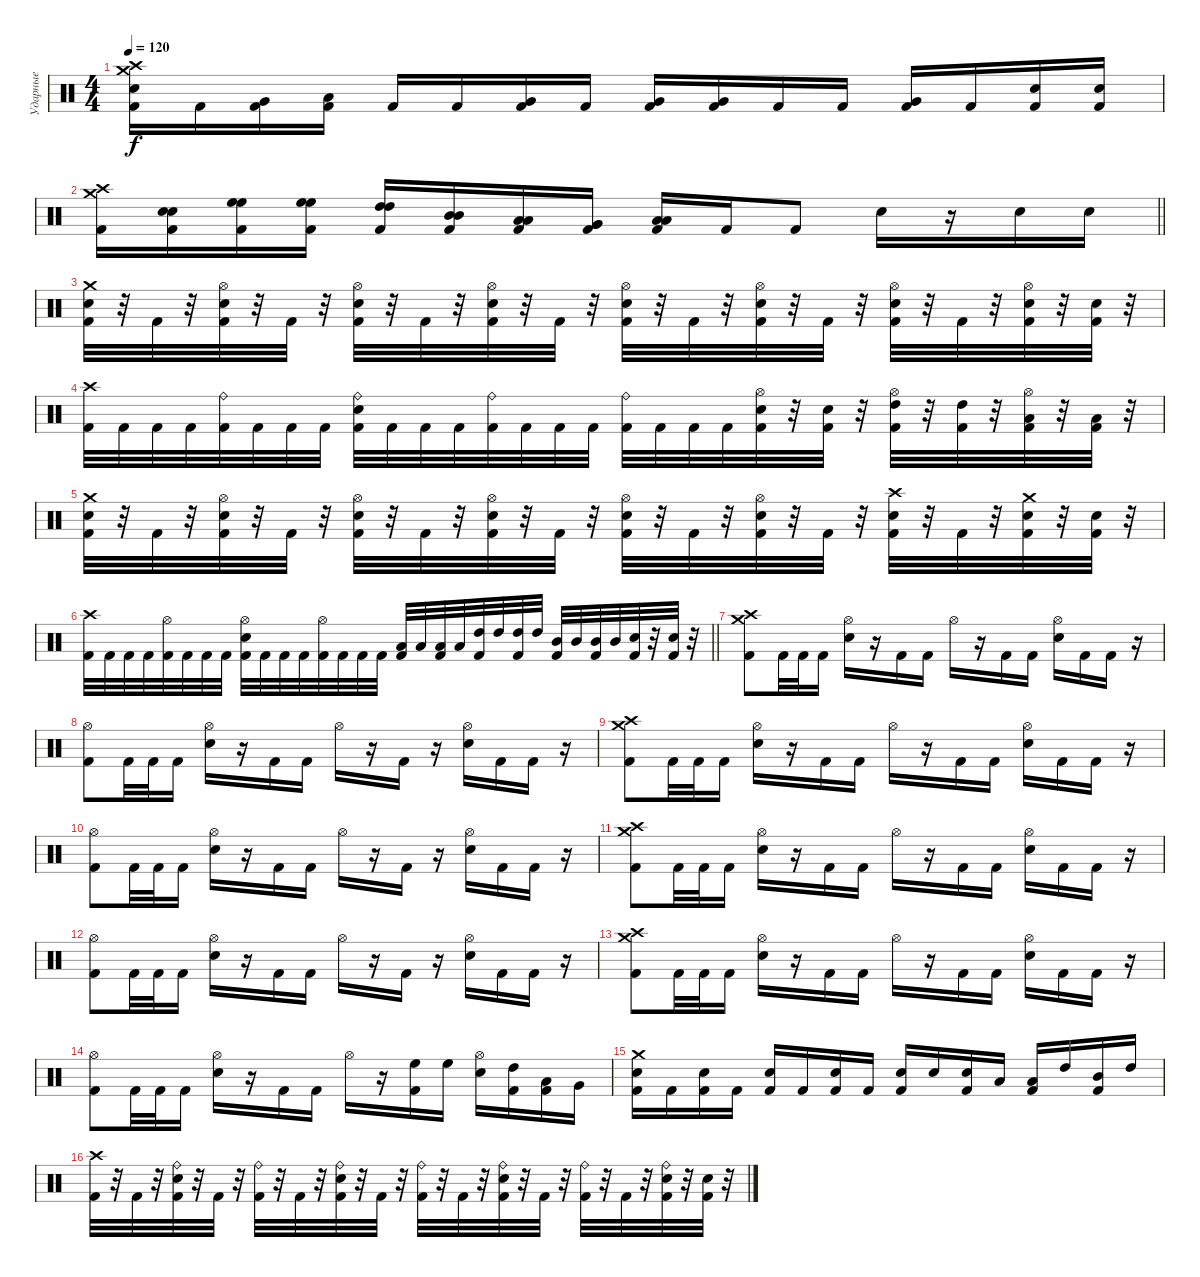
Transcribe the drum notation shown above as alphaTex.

\track ("Ударные" "Ударные") {instrument percussion}
\staff {score}
\articulation defaults
\ts (4 4)
\tempo 120
\clef neutral
\ks c
("Crash medium (hit)" "Crash high (hit)" "Snare (hit) 2" "Kick (hit) 2").16{dy f} "Kick (hit) 2".16 ("Very Low Tom (hit)" "Kick (hit) 2").16 ("Low Tom (hit)" "Kick (hit) 2").16 "Kick (hit) 2".16 "Kick (hit) 2".16 ("Very Low Tom (hit)" "Kick (hit) 2").16 "Kick (hit) 2".16 ("Very Low Tom (hit)" "Kick (hit) 2").16 ("Very Low Tom (hit)" "Kick (hit) 2").16 "Kick (hit) 2".16 "Kick (hit) 2".16 ("Very Low Tom (hit)" "Kick (hit) 2").16 "Kick (hit) 2".16 ("Snare (hit) 2" "Kick (hit) 2").16 ("Snare (hit) 2" "Kick (hit) 2").16 |
\barLineRight lightlight
("Crash medium (hit)" "Crash high (hit)" "Kick (hit) 2").16 ("Snare (hit) 2" "Snare (hit) 2" "Kick (hit) 2").16 ("High Floor Tom (hit)" "High Floor Tom (hit)" "Kick (hit) 2").16 ("High Floor Tom (hit)" "High Floor Tom (hit)" "Kick (hit) 2").16 ("High Tom (hit)" "High Tom (hit)" "Kick (hit) 2").16 ("Mid Tom (hit)" "Mid Tom (hit)" "Kick (hit) 2").16 ("Low Tom (hit)" "Low Tom (hit)" "Kick (hit) 2").16 ("Very Low Tom (hit)" "Very Low Tom (hit)" "Kick (hit) 2").16 ("Low Floor Tom (hit)" "Low Floor Tom (hit)" "Kick (hit) 2").16 "Kick (hit) 2".16 "Kick (hit) 2".8 "Snare (hit) 2".16 r.16 "Snare (hit) 2".16 "Snare (hit) 2".16 |
("Crash medium (hit)" "Snare (hit) 2" "Kick (hit) 2").32 r.32 "Kick (hit) 2".32 r.32 ("Hi-Hat (open)" "Snare (hit) 2" "Kick (hit) 2").32 r.32 "Kick (hit) 2".32 r.32 ("Hi-Hat (open)" "Snare (hit) 2" "Kick (hit) 2").32 r.32 "Kick (hit) 2".32 r.32 ("Hi-Hat (open)" "Snare (hit) 2" "Kick (hit) 2").32 r.32 "Kick (hit) 2".32 r.32 ("Hi-Hat (open)" "Snare (hit) 2" "Kick (hit) 2").32 r.32 "Kick (hit) 2".32 r.32 ("Hi-Hat (open)" "Snare (hit) 2" "Kick (hit) 2").32 r.32 "Kick (hit) 2".32 r.32 ("Hi-Hat (open)" "Snare (hit) 2" "Kick (hit) 2").32 r.32 "Kick (hit) 2".32 r.32 ("Hi-Hat (open)" "Snare (hit) 2" "Kick (hit) 2").32 r.32 ("Snare (hit) 2" "Kick (hit) 2").32 r.32 |
("Crash high (hit)" "Kick (hit) 2").32 "Kick (hit) 2".32 "Kick (hit) 2".32 "Kick (hit) 2".32 ("Ride (bell)" "Kick (hit) 2").32 "Kick (hit) 2".32 "Kick (hit) 2".32 "Kick (hit) 2".32 ("Ride (bell)" "Snare (hit) 2" "Kick (hit) 2").32 "Kick (hit) 2".32 "Kick (hit) 2".32 "Kick (hit) 2".32 ("Ride (bell)" "Kick (hit) 2").32 "Kick (hit) 2".32 "Kick (hit) 2".32 "Kick (hit) 2".32 ("Ride (bell)" "Kick (hit) 2").32 "Kick (hit) 2".32 "Kick (hit) 2".32 "Kick (hit) 2".32 ("Hi-Hat (open)" "Snare (hit) 2" "Kick (hit) 2").32 r.32 ("Snare (hit) 2" "Kick (hit) 2").32 r.32 ("Hi-Hat (open)" "High Tom (hit)" "Kick (hit) 2").32 r.32 ("High Tom (hit)" "Kick (hit) 2").32 r.32 ("Hi-Hat (open)" "Low Tom (hit)" "Kick (hit) 2").32 r.32 ("Low Tom (hit)" "Kick (hit) 2").32 r.32 |
("Crash medium (hit)" "Snare (hit) 2" "Kick (hit) 2").32 r.32 "Kick (hit) 2".32 r.32 ("Hi-Hat (open)" "Snare (hit) 2" "Kick (hit) 2").32 r.32 "Kick (hit) 2".32 r.32 ("Hi-Hat (open)" "Snare (hit) 2" "Kick (hit) 2").32 r.32 "Kick (hit) 2".32 r.32 ("Hi-Hat (open)" "Snare (hit) 2" "Kick (hit) 2").32 r.32 "Kick (hit) 2".32 r.32 ("Hi-Hat (open)" "Snare (hit) 2" "Kick (hit) 2").32 r.32 "Kick (hit) 2".32 r.32 ("Hi-Hat (open)" "Snare (hit) 2" "Kick (hit) 2").32 r.32 "Kick (hit) 2".32 r.32 ("Crash high (hit)" "Snare (hit) 2" "Kick (hit) 2").32 r.32 "Kick (hit) 2".32 r.32 ("Crash medium (hit)" "Snare (hit) 2" "Kick (hit) 2").32 r.32 ("Snare (hit) 2" "Kick (hit) 2").32 r.32 |
\barLineRight lightlight
("Crash high (hit)" "Kick (hit) 2").32 "Kick (hit) 2".32 "Kick (hit) 2".32 "Kick (hit) 2".32 ("Hi-Hat (open)" "Kick (hit) 2").32 "Kick (hit) 2".32 "Kick (hit) 2".32 "Kick (hit) 2".32 ("Hi-Hat (open)" "Snare (hit) 2" "Kick (hit) 2").32 "Kick (hit) 2".32 "Kick (hit) 2".32 "Kick (hit) 2".32 ("Hi-Hat (open)" "Kick (hit) 2").32 "Kick (hit) 2".32 "Kick (hit) 2".32 "Kick (hit) 2".32 ("Low Tom (hit)" "Kick (hit) 2").32 "Low Tom (hit)".32 ("Low Tom (hit)" "Kick (hit) 2").32 "Low Tom (hit)".32 ("High Tom (hit)" "Kick (hit) 2").32 "High Tom (hit)".32 ("High Tom (hit)" "Kick (hit) 2").32 "High Tom (hit)".32 ("Mid Tom (hit)" "Kick (hit) 2").32 "Mid Tom (hit)".32 ("Mid Tom (hit)" "Kick (hit) 2").32 "Mid Tom (hit)".32 ("Snare (hit) 2" "Kick (hit) 2").32 r.32 ("Snare (hit) 2" "Kick (hit) 2").32 r.32 |
("Crash medium (hit)" "Crash high (hit)" "Kick (hit) 2").8 "Kick (hit) 2".32 "Kick (hit) 2".32 "Kick (hit) 2".16 ("Hi-Hat (open)" "Snare (hit) 2").16 r.16 "Kick (hit) 2".16 "Kick (hit) 2".16 "Hi-Hat (open)".16 r.16 "Kick (hit) 2".16 "Kick (hit) 2".16 ("Hi-Hat (open)" "Snare (hit) 2").16 "Kick (hit) 2".16 "Kick (hit) 2".16 r.16 |
("Hi-Hat (open)" "Kick (hit) 2").8 "Kick (hit) 2".32 "Kick (hit) 2".32 "Kick (hit) 2".16 ("Hi-Hat (open)" "Snare (hit) 2").16 r.16 "Kick (hit) 2".16 "Kick (hit) 2".16 "Hi-Hat (open)".16 r.16 "Kick (hit) 2".16 r.16 ("Hi-Hat (open)" "Snare (hit) 2").16 "Kick (hit) 2".16 "Kick (hit) 2".16 r.16 |
("Crash medium (hit)" "Crash high (hit)" "Kick (hit) 2").8 "Kick (hit) 2".32 "Kick (hit) 2".32 "Kick (hit) 2".16 ("Hi-Hat (open)" "Snare (hit) 2").16 r.16 "Kick (hit) 2".16 "Kick (hit) 2".16 "Hi-Hat (open)".16 r.16 "Kick (hit) 2".16 "Kick (hit) 2".16 ("Hi-Hat (open)" "Snare (hit) 2").16 "Kick (hit) 2".16 "Kick (hit) 2".16 r.16 |
("Hi-Hat (open)" "Kick (hit) 2").8 "Kick (hit) 2".32 "Kick (hit) 2".32 "Kick (hit) 2".16 ("Hi-Hat (open)" "Snare (hit) 2").16 r.16 "Kick (hit) 2".16 "Kick (hit) 2".16 "Hi-Hat (open)".16 r.16 "Kick (hit) 2".16 r.16 ("Hi-Hat (open)" "Snare (hit) 2").16 "Kick (hit) 2".16 "Kick (hit) 2".16 r.16 |
("Crash medium (hit)" "Crash high (hit)" "Kick (hit) 2").8 "Kick (hit) 2".32 "Kick (hit) 2".32 "Kick (hit) 2".16 ("Hi-Hat (open)" "Snare (hit) 2").16 r.16 "Kick (hit) 2".16 "Kick (hit) 2".16 "Hi-Hat (open)".16 r.16 "Kick (hit) 2".16 "Kick (hit) 2".16 ("Hi-Hat (open)" "Snare (hit) 2").16 "Kick (hit) 2".16 "Kick (hit) 2".16 r.16 |
("Hi-Hat (open)" "Kick (hit) 2").8 "Kick (hit) 2".32 "Kick (hit) 2".32 "Kick (hit) 2".16 ("Hi-Hat (open)" "Snare (hit) 2").16 r.16 "Kick (hit) 2".16 "Kick (hit) 2".16 "Hi-Hat (open)".16 r.16 "Kick (hit) 2".16 r.16 ("Hi-Hat (open)" "Snare (hit) 2").16 "Kick (hit) 2".16 "Kick (hit) 2".16 r.16 |
("Crash medium (hit)" "Crash high (hit)" "Kick (hit) 2").8 "Kick (hit) 2".32 "Kick (hit) 2".32 "Kick (hit) 2".16 ("Hi-Hat (open)" "Snare (hit) 2").16 r.16 "Kick (hit) 2".16 "Kick (hit) 2".16 "Hi-Hat (open)".16 r.16 "Kick (hit) 2".16 "Kick (hit) 2".16 ("Hi-Hat (open)" "Snare (hit) 2").16 "Kick (hit) 2".16 "Kick (hit) 2".16 r.16 |
("Hi-Hat (open)" "Kick (hit) 2").8 "Kick (hit) 2".32 "Kick (hit) 2".32 "Kick (hit) 2".16 ("Hi-Hat (open)" "Snare (hit) 2").16 r.16 "Kick (hit) 2".16 "Kick (hit) 2".16 "Hi-Hat (open)".16 r.16 ("High Floor Tom (hit)" "Kick (hit) 2").16 "High Floor Tom (hit)".16 ("Hi-Hat (open)" "Snare (hit) 2").16 ("High Tom (hit)" "Kick (hit) 2").16 ("Low Tom (hit)" "Kick (hit) 2").16 "Very Low Tom (hit)".16 |
("Crash medium (hit)" "Snare (hit) 2" "Kick (hit) 2").16 "Kick (hit) 2".16 ("Snare (hit) 2" "Kick (hit) 2").16 "Kick (hit) 2".16 ("Snare (hit) 2" "Kick (hit) 2").16 "Kick (hit) 2".16 ("Snare (hit) 2" "Kick (hit) 2").16 "Kick (hit) 2".16 ("Snare (hit) 2" "Kick (hit) 2").16 "Snare (hit) 2".16 ("Snare (hit) 2" "Kick (hit) 2").16 "Low Tom (hit)".16 ("Low Tom (hit)" "Kick (hit) 2").16 "High Tom (hit)".16 ("Mid Tom (hit)" "Kick (hit) 2").16 "High Tom (hit)".16 |
("Crash high (hit)" "Kick (hit) 2").32 r.32 "Kick (hit) 2".32 r.32 ("Ride (bell)" "Snare (hit) 2" "Kick (hit) 2").32 r.32 "Kick (hit) 2".32 r.32 ("Ride (bell)" "Kick (hit) 2").32 r.32 "Kick (hit) 2".32 r.32 ("Ride (bell)" "Snare (hit) 2" "Kick (hit) 2").32 r.32 "Kick (hit) 2".32 r.32 ("Ride (bell)" "Kick (hit) 2").32 r.32 "Kick (hit) 2".32 r.32 ("Ride (bell)" "Snare (hit) 2" "Kick (hit) 2").32 r.32 "Kick (hit) 2".32 r.32 ("Ride (bell)" "Kick (hit) 2").32 r.32 "Kick (hit) 2".32 r.32 ("Ride (bell)" "Snare (hit) 2" "Kick (hit) 2").32 r.32 ("Snare (hit) 2" "Kick (hit) 2").32 r.32
